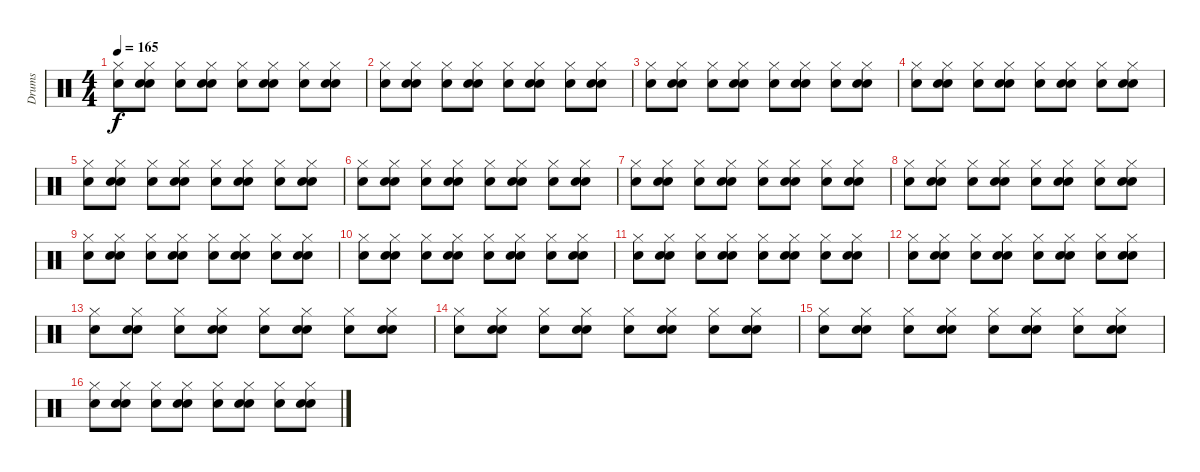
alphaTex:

\track ("Drums" "Drums") {instrument percussion}
\staff {score}
\articulation defaults
\ts (4 4)
\tempo 165
\clef neutral
\ks c
("Hi-Hat (closed)" "Electric Snare (hit)").8{dy f} ("Snare (hit) 2" "Electric Snare (hit)" "Hi-Hat (closed)").8 ("Hi-Hat (closed)" "Electric Snare (hit)").8 ("Snare (hit) 2" "Hi-Hat (closed)" "Electric Snare (hit)").8 ("Hi-Hat (closed)" "Electric Snare (hit)").8 ("Snare (hit) 2" "Hi-Hat (closed)" "Electric Snare (hit)").8 ("Hi-Hat (closed)" "Electric Snare (hit)").8 ("Snare (hit) 2" "Hi-Hat (closed)" "Electric Snare (hit)").8 |
("Hi-Hat (closed)" "Electric Snare (hit)").8 ("Snare (hit) 2" "Electric Snare (hit)" "Hi-Hat (closed)").8 ("Hi-Hat (closed)" "Electric Snare (hit)").8 ("Snare (hit) 2" "Hi-Hat (closed)" "Electric Snare (hit)").8 ("Hi-Hat (closed)" "Electric Snare (hit)").8 ("Snare (hit) 2" "Hi-Hat (closed)" "Electric Snare (hit)").8 ("Hi-Hat (closed)" "Electric Snare (hit)").8 ("Snare (hit) 2" "Hi-Hat (closed)" "Electric Snare (hit)").8 |
("Hi-Hat (closed)" "Electric Snare (hit)").8 ("Snare (hit) 2" "Electric Snare (hit)" "Hi-Hat (closed)").8 ("Hi-Hat (closed)" "Electric Snare (hit)").8 ("Snare (hit) 2" "Hi-Hat (closed)" "Electric Snare (hit)").8 ("Hi-Hat (closed)" "Electric Snare (hit)").8 ("Snare (hit) 2" "Hi-Hat (closed)" "Electric Snare (hit)").8 ("Hi-Hat (closed)" "Electric Snare (hit)").8 ("Snare (hit) 2" "Hi-Hat (closed)" "Electric Snare (hit)").8 |
("Hi-Hat (closed)" "Electric Snare (hit)").8 ("Snare (hit) 2" "Electric Snare (hit)" "Hi-Hat (closed)").8 ("Hi-Hat (closed)" "Electric Snare (hit)").8 ("Snare (hit) 2" "Hi-Hat (closed)" "Electric Snare (hit)").8 ("Hi-Hat (closed)" "Electric Snare (hit)").8 ("Snare (hit) 2" "Hi-Hat (closed)" "Electric Snare (hit)").8 ("Hi-Hat (closed)" "Electric Snare (hit)").8 ("Snare (hit) 2" "Hi-Hat (closed)" "Electric Snare (hit)").8 |
("Hi-Hat (closed)" "Electric Snare (hit)").8 ("Snare (hit) 2" "Electric Snare (hit)" "Hi-Hat (closed)").8 ("Hi-Hat (closed)" "Electric Snare (hit)").8 ("Snare (hit) 2" "Hi-Hat (closed)" "Electric Snare (hit)").8 ("Hi-Hat (closed)" "Electric Snare (hit)").8 ("Snare (hit) 2" "Hi-Hat (closed)" "Electric Snare (hit)").8 ("Hi-Hat (closed)" "Electric Snare (hit)").8 ("Snare (hit) 2" "Hi-Hat (closed)" "Electric Snare (hit)").8 |
("Hi-Hat (closed)" "Electric Snare (hit)").8 ("Snare (hit) 2" "Electric Snare (hit)" "Hi-Hat (closed)").8 ("Hi-Hat (closed)" "Electric Snare (hit)").8 ("Snare (hit) 2" "Hi-Hat (closed)" "Electric Snare (hit)").8 ("Hi-Hat (closed)" "Electric Snare (hit)").8 ("Snare (hit) 2" "Hi-Hat (closed)" "Electric Snare (hit)").8 ("Hi-Hat (closed)" "Electric Snare (hit)").8 ("Snare (hit) 2" "Hi-Hat (closed)" "Electric Snare (hit)").8 |
("Hi-Hat (closed)" "Electric Snare (hit)").8 ("Snare (hit) 2" "Electric Snare (hit)" "Hi-Hat (closed)").8 ("Hi-Hat (closed)" "Electric Snare (hit)").8 ("Snare (hit) 2" "Hi-Hat (closed)" "Electric Snare (hit)").8 ("Hi-Hat (closed)" "Electric Snare (hit)").8 ("Snare (hit) 2" "Hi-Hat (closed)" "Electric Snare (hit)").8 ("Hi-Hat (closed)" "Electric Snare (hit)").8 ("Snare (hit) 2" "Hi-Hat (closed)" "Electric Snare (hit)").8 |
("Hi-Hat (closed)" "Electric Snare (hit)").8 ("Snare (hit) 2" "Electric Snare (hit)" "Hi-Hat (closed)").8 ("Hi-Hat (closed)" "Electric Snare (hit)").8 ("Snare (hit) 2" "Hi-Hat (closed)" "Electric Snare (hit)").8 ("Hi-Hat (closed)" "Electric Snare (hit)").8 ("Snare (hit) 2" "Hi-Hat (closed)" "Electric Snare (hit)").8 ("Hi-Hat (closed)" "Electric Snare (hit)").8 ("Snare (hit) 2" "Hi-Hat (closed)" "Electric Snare (hit)").8 |
("Hi-Hat (closed)" "Electric Snare (hit)").8 ("Snare (hit) 2" "Electric Snare (hit)" "Hi-Hat (closed)").8 ("Hi-Hat (closed)" "Electric Snare (hit)").8 ("Snare (hit) 2" "Hi-Hat (closed)" "Electric Snare (hit)").8 ("Hi-Hat (closed)" "Electric Snare (hit)").8 ("Snare (hit) 2" "Hi-Hat (closed)" "Electric Snare (hit)").8 ("Hi-Hat (closed)" "Electric Snare (hit)").8 ("Snare (hit) 2" "Hi-Hat (closed)" "Electric Snare (hit)").8 |
("Hi-Hat (closed)" "Electric Snare (hit)").8 ("Snare (hit) 2" "Electric Snare (hit)" "Hi-Hat (closed)").8 ("Hi-Hat (closed)" "Electric Snare (hit)").8 ("Snare (hit) 2" "Hi-Hat (closed)" "Electric Snare (hit)").8 ("Hi-Hat (closed)" "Electric Snare (hit)").8 ("Snare (hit) 2" "Hi-Hat (closed)" "Electric Snare (hit)").8 ("Hi-Hat (closed)" "Electric Snare (hit)").8 ("Snare (hit) 2" "Hi-Hat (closed)" "Electric Snare (hit)").8 |
("Hi-Hat (closed)" "Electric Snare (hit)").8 ("Snare (hit) 2" "Electric Snare (hit)" "Hi-Hat (closed)").8 ("Hi-Hat (closed)" "Electric Snare (hit)").8 ("Snare (hit) 2" "Hi-Hat (closed)" "Electric Snare (hit)").8 ("Hi-Hat (closed)" "Electric Snare (hit)").8 ("Snare (hit) 2" "Hi-Hat (closed)" "Electric Snare (hit)").8 ("Hi-Hat (closed)" "Electric Snare (hit)").8 ("Snare (hit) 2" "Hi-Hat (closed)" "Electric Snare (hit)").8 |
("Hi-Hat (closed)" "Electric Snare (hit)").8 ("Snare (hit) 2" "Electric Snare (hit)" "Hi-Hat (closed)").8 ("Hi-Hat (closed)" "Electric Snare (hit)").8 ("Snare (hit) 2" "Hi-Hat (closed)" "Electric Snare (hit)").8 ("Hi-Hat (closed)" "Electric Snare (hit)").8 ("Snare (hit) 2" "Hi-Hat (closed)" "Electric Snare (hit)").8 ("Hi-Hat (closed)" "Electric Snare (hit)").8 ("Snare (hit) 2" "Hi-Hat (closed)" "Electric Snare (hit)").8 |
("Hi-Hat (closed)" "Electric Snare (hit)").8 ("Snare (hit) 2" "Electric Snare (hit)" "Hi-Hat (closed)").8 ("Hi-Hat (closed)" "Electric Snare (hit)").8 ("Snare (hit) 2" "Hi-Hat (closed)" "Electric Snare (hit)").8 ("Hi-Hat (closed)" "Electric Snare (hit)").8 ("Snare (hit) 2" "Hi-Hat (closed)" "Electric Snare (hit)").8 ("Hi-Hat (closed)" "Electric Snare (hit)").8 ("Snare (hit) 2" "Hi-Hat (closed)" "Electric Snare (hit)").8 |
("Hi-Hat (closed)" "Electric Snare (hit)").8 ("Snare (hit) 2" "Electric Snare (hit)" "Hi-Hat (closed)").8 ("Hi-Hat (closed)" "Electric Snare (hit)").8 ("Snare (hit) 2" "Hi-Hat (closed)" "Electric Snare (hit)").8 ("Hi-Hat (closed)" "Electric Snare (hit)").8 ("Snare (hit) 2" "Hi-Hat (closed)" "Electric Snare (hit)").8 ("Hi-Hat (closed)" "Electric Snare (hit)").8 ("Snare (hit) 2" "Hi-Hat (closed)" "Electric Snare (hit)").8 |
("Hi-Hat (closed)" "Electric Snare (hit)").8 ("Snare (hit) 2" "Electric Snare (hit)" "Hi-Hat (closed)").8 ("Hi-Hat (closed)" "Electric Snare (hit)").8 ("Snare (hit) 2" "Hi-Hat (closed)" "Electric Snare (hit)").8 ("Hi-Hat (closed)" "Electric Snare (hit)").8 ("Snare (hit) 2" "Hi-Hat (closed)" "Electric Snare (hit)").8 ("Hi-Hat (closed)" "Electric Snare (hit)").8 ("Snare (hit) 2" "Hi-Hat (closed)" "Electric Snare (hit)").8 |
("Hi-Hat (closed)" "Electric Snare (hit)").8 ("Snare (hit) 2" "Electric Snare (hit)" "Hi-Hat (closed)").8 ("Hi-Hat (closed)" "Electric Snare (hit)").8 ("Snare (hit) 2" "Hi-Hat (closed)" "Electric Snare (hit)").8 ("Hi-Hat (closed)" "Electric Snare (hit)").8 ("Snare (hit) 2" "Hi-Hat (closed)" "Electric Snare (hit)").8 ("Hi-Hat (closed)" "Electric Snare (hit)").8 ("Snare (hit) 2" "Hi-Hat (closed)" "Electric Snare (hit)").8
